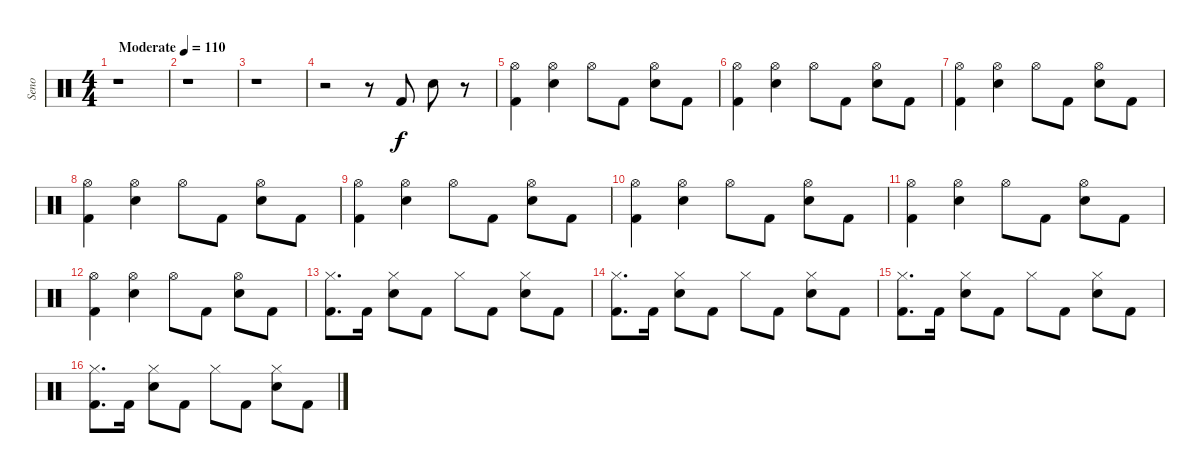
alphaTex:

\track ("Seno" "Seno") {instrument percussion}
\staff {score}
\articulation defaults
\ts (4 4)
\tempo (110 "Moderate")
\clef neutral
\ks c
r.1{dy f} |
r.1 |
r.1 |
r.2 r.8 "Kick (hit) 2".8 "Snare (hit) 2".8 r.8 |
("Kick (hit) 2" "Hi-Hat (open)").4 ("Snare (hit) 2" "Hi-Hat (open)").4 "Hi-Hat (open)".8 "Kick (hit) 2".8 ("Hi-Hat (open)" "Snare (hit) 2").8 "Kick (hit) 2".8 |
("Kick (hit) 2" "Hi-Hat (open)").4 ("Snare (hit) 2" "Hi-Hat (open)").4 "Hi-Hat (open)".8 "Kick (hit) 2".8 ("Hi-Hat (open)" "Snare (hit) 2").8 "Kick (hit) 2".8 |
("Kick (hit) 2" "Hi-Hat (open)").4 ("Snare (hit) 2" "Hi-Hat (open)").4 "Hi-Hat (open)".8 "Kick (hit) 2".8 ("Hi-Hat (open)" "Snare (hit) 2").8 "Kick (hit) 2".8 |
("Kick (hit) 2" "Hi-Hat (open)").4 ("Snare (hit) 2" "Hi-Hat (open)").4 "Hi-Hat (open)".8 "Kick (hit) 2".8 ("Hi-Hat (open)" "Snare (hit) 2").8 "Kick (hit) 2".8 |
("Kick (hit) 2" "Hi-Hat (open)").4 ("Snare (hit) 2" "Hi-Hat (open)").4 "Hi-Hat (open)".8 "Kick (hit) 2".8 ("Hi-Hat (open)" "Snare (hit) 2").8 "Kick (hit) 2".8 |
("Kick (hit) 2" "Hi-Hat (open)").4 ("Snare (hit) 2" "Hi-Hat (open)").4 "Hi-Hat (open)".8 "Kick (hit) 2".8 ("Hi-Hat (open)" "Snare (hit) 2").8 "Kick (hit) 2".8 |
("Kick (hit) 2" "Hi-Hat (open)").4 ("Snare (hit) 2" "Hi-Hat (open)").4 "Hi-Hat (open)".8 "Kick (hit) 2".8 ("Hi-Hat (open)" "Snare (hit) 2").8 "Kick (hit) 2".8 |
("Kick (hit) 2" "Hi-Hat (open)").4 ("Snare (hit) 2" "Hi-Hat (open)").4 "Hi-Hat (open)".8 "Kick (hit) 2".8 ("Hi-Hat (open)" "Snare (hit) 2").8 "Kick (hit) 2".8 |
("Hi-Hat (closed)" "Kick (hit) 2").8{d} "Kick (hit) 2".16 ("Snare (hit) 2" "Hi-Hat (closed)").8 "Kick (hit) 2".8 "Hi-Hat (closed)".8 "Kick (hit) 2".8 ("Snare (hit) 2" "Hi-Hat (closed)").8 "Kick (hit) 2".8 |
("Hi-Hat (closed)" "Kick (hit) 2").8{d} "Kick (hit) 2".16 ("Snare (hit) 2" "Hi-Hat (closed)").8 "Kick (hit) 2".8 "Hi-Hat (closed)".8 "Kick (hit) 2".8 ("Snare (hit) 2" "Hi-Hat (closed)").8 "Kick (hit) 2".8 |
("Hi-Hat (closed)" "Kick (hit) 2").8{d} "Kick (hit) 2".16 ("Snare (hit) 2" "Hi-Hat (closed)").8 "Kick (hit) 2".8 "Hi-Hat (closed)".8 "Kick (hit) 2".8 ("Snare (hit) 2" "Hi-Hat (closed)").8 "Kick (hit) 2".8 |
("Hi-Hat (closed)" "Kick (hit) 2").8{d} "Kick (hit) 2".16 ("Snare (hit) 2" "Hi-Hat (closed)").8 "Kick (hit) 2".8 "Hi-Hat (closed)".8 "Kick (hit) 2".8 ("Snare (hit) 2" "Hi-Hat (closed)").8 "Kick (hit) 2".8
